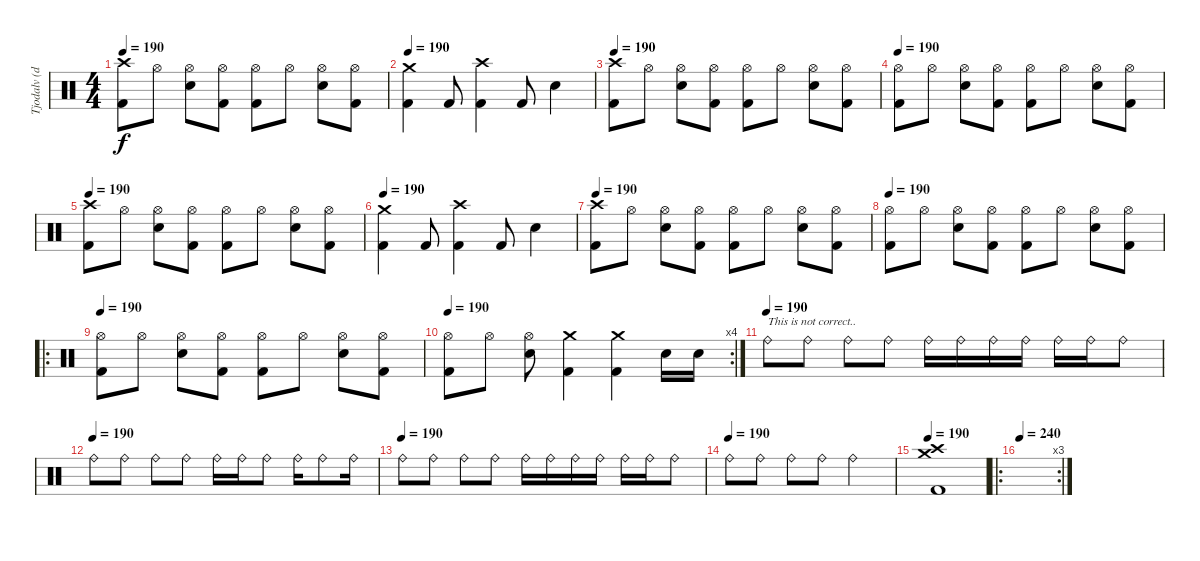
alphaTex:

\track ("Tjodalv (drums)" "Tjodalv (d") {instrument percussion}
\staff {score}
\articulation defaults
\ts (4 4)
\tempo 190
\clef neutral
\ks c
("Crash high (hit)" "Kick (hit) 2").8{dy f} "Hi-Hat (open)".8 ("Hi-Hat (open)" "Snare (hit) 2").8 ("Hi-Hat (open)" "Kick (hit) 2").8 ("Hi-Hat (open)" "Kick (hit) 2").8 "Hi-Hat (open)".8 ("Hi-Hat (open)" "Snare (hit) 2").8 ("Hi-Hat (open)" "Kick (hit) 2").8 |
\tempo 190
("Crash medium (hit)" "Kick (hit) 2").4 "Kick (hit) 2".8 ("Crash high (hit)" "Kick (hit) 2").4 "Kick (hit) 2".8 "Snare (hit) 2".4 |
\tempo 190
("Crash high (hit)" "Kick (hit) 2").8 "Hi-Hat (open)".8 ("Hi-Hat (open)" "Snare (hit) 2").8 ("Hi-Hat (open)" "Kick (hit) 2").8 ("Hi-Hat (open)" "Kick (hit) 2").8 "Hi-Hat (open)".8 ("Hi-Hat (open)" "Snare (hit) 2").8 ("Hi-Hat (open)" "Kick (hit) 2").8 |
\tempo 190
("Hi-Hat (open)" "Kick (hit) 2").8 "Hi-Hat (open)".8 ("Hi-Hat (open)" "Snare (hit) 2").8 ("Hi-Hat (open)" "Kick (hit) 2").8 ("Hi-Hat (open)" "Kick (hit) 2").8 "Hi-Hat (open)".8 ("Hi-Hat (open)" "Snare (hit) 2").8 ("Hi-Hat (open)" "Kick (hit) 2").8 |
\tempo 190
("Crash high (hit)" "Kick (hit) 2").8 "Hi-Hat (open)".8 ("Hi-Hat (open)" "Snare (hit) 2").8 ("Hi-Hat (open)" "Kick (hit) 2").8 ("Hi-Hat (open)" "Kick (hit) 2").8 "Hi-Hat (open)".8 ("Hi-Hat (open)" "Snare (hit) 2").8 ("Hi-Hat (open)" "Kick (hit) 2").8 |
\tempo 190
("Crash medium (hit)" "Kick (hit) 2").4 "Kick (hit) 2".8 ("Crash high (hit)" "Kick (hit) 2").4 "Kick (hit) 2".8 "Snare (hit) 2".4 |
\tempo 190
("Crash high (hit)" "Kick (hit) 2").8 "Hi-Hat (open)".8 ("Hi-Hat (open)" "Snare (hit) 2").8 ("Hi-Hat (open)" "Kick (hit) 2").8 ("Hi-Hat (open)" "Kick (hit) 2").8 "Hi-Hat (open)".8 ("Hi-Hat (open)" "Snare (hit) 2").8 ("Hi-Hat (open)" "Kick (hit) 2").8 |
\tempo 190
("Hi-Hat (open)" "Kick (hit) 2").8 "Hi-Hat (open)".8 ("Hi-Hat (open)" "Snare (hit) 2").8 ("Hi-Hat (open)" "Kick (hit) 2").8 ("Hi-Hat (open)" "Kick (hit) 2").8 "Hi-Hat (open)".8 ("Hi-Hat (open)" "Snare (hit) 2").8 ("Hi-Hat (open)" "Kick (hit) 2").8 |
\ro
\tempo 190
("Hi-Hat (open)" "Kick (hit) 2").8 "Hi-Hat (open)".8 ("Hi-Hat (open)" "Snare (hit) 2").8 ("Hi-Hat (open)" "Kick (hit) 2").8 ("Hi-Hat (open)" "Kick (hit) 2").8 "Hi-Hat (open)".8 ("Hi-Hat (open)" "Snare (hit) 2").8 ("Hi-Hat (open)" "Kick (hit) 2").8 |
\rc 4
\tempo 190
("Hi-Hat (open)" "Kick (hit) 2").8 "Hi-Hat (open)".8 ("Hi-Hat (open)" "Snare (hit) 2").8 ("Crash medium (hit)" "Kick (hit) 2").4 ("Crash medium (hit)" "Kick (hit) 2").4 "Snare (hit) 2".16 "Snare (hit) 2".16 |
\tempo (190)
"Ride (bell)".8{txt "This is not correct.. "} "Ride (bell)".8 "Ride (bell)".8 "Ride (bell)".8 "Ride (bell)".16 "Ride (bell)".16 "Ride (bell)".16 "Ride (bell)".16 "Ride (bell)".16 "Ride (bell)".16 "Ride (bell)".8 |
\tempo (190)
"Ride (bell)".8 "Ride (bell)".8 "Ride (bell)".8 "Ride (bell)".8 "Ride (bell)".16 "Ride (bell)".16 "Ride (bell)".8 "Ride (bell)".16 "Ride (bell)".8 "Ride (bell)".16 |
\tempo (190)
"Ride (bell)".8 "Ride (bell)".8 "Ride (bell)".8 "Ride (bell)".8 "Ride (bell)".16 "Ride (bell)".16 "Ride (bell)".16 "Ride (bell)".16 "Ride (bell)".16 "Ride (bell)".16 "Ride (bell)".8 |
\tempo (190)
"Ride (bell)".8 "Ride (bell)".8 "Ride (bell)".8 "Ride (bell)".8 "Ride (bell)".2 |
\tempo 190
("Crash high (hit)" "Crash medium (hit)" "Kick (hit) 2").1 |
\ro
\rc 3
\tempo 240
